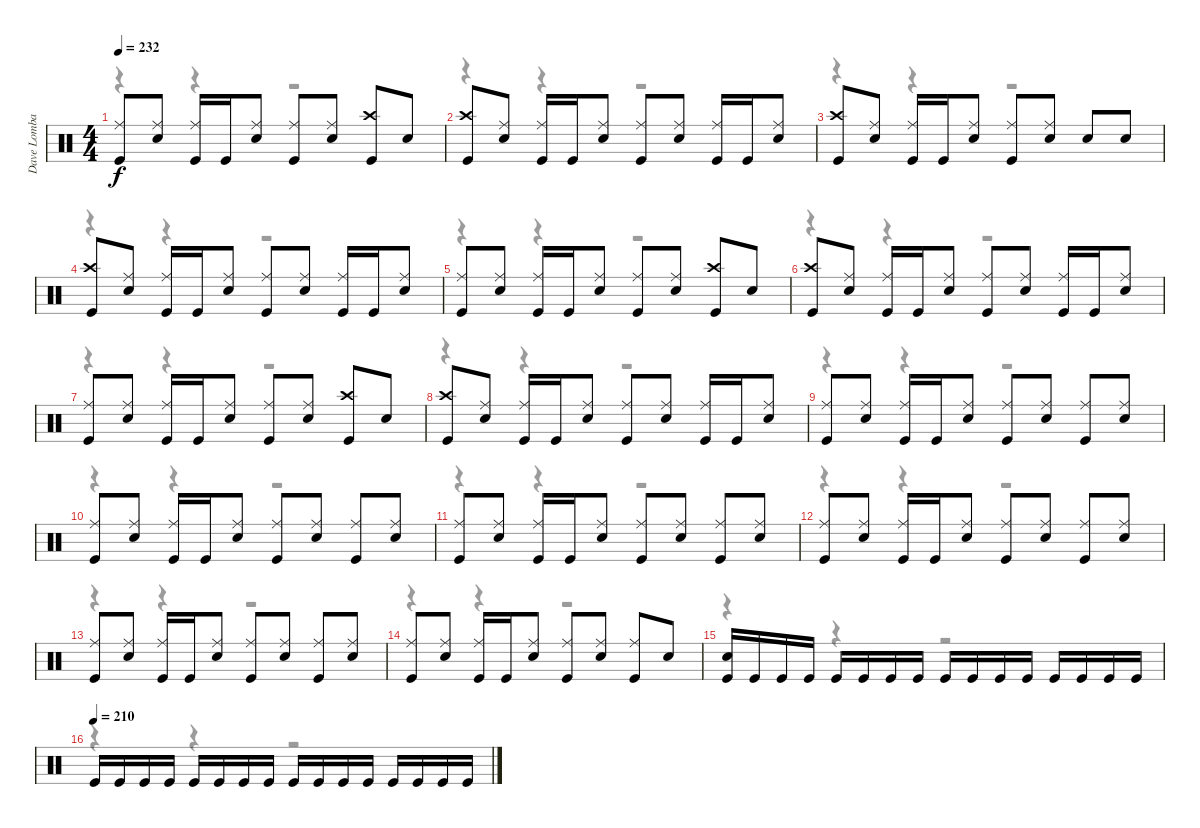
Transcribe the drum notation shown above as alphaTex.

\track ("Dave Lombardo" "Dave Lomba") {instrument percussion}
\staff {score}
\articulation defaults
\voice
\ts (4 4)
\tempo 232
\clef neutral
\ks c
("Ride (middle)" "Kick (hit)").8{dy f} ("Ride (middle)" "Snare (hit) 2").8 ("Ride (middle)" "Kick (hit)").16 "Kick (hit)".16 ("Ride (middle)" "Snare (hit) 2").8 ("Ride (middle)" "Kick (hit)").8 ("Ride (middle)" "Snare (hit) 2").8 ("Crash high (hit)" "Kick (hit)").8 "Snare (hit) 2".8 |
("Crash high (hit)" "Kick (hit)").8 ("Ride (middle)" "Snare (hit) 2").8 ("Ride (middle)" "Kick (hit)").16 "Kick (hit)".16 ("Ride (middle)" "Snare (hit) 2").8 ("Ride (middle)" "Kick (hit)").8 ("Ride (middle)" "Snare (hit) 2").8 ("Ride (middle)" "Kick (hit)").16 "Kick (hit)".16 ("Ride (middle)" "Snare (hit) 2").8 |
("Crash high (hit)" "Kick (hit)").8 ("Ride (middle)" "Snare (hit) 2").8 ("Ride (middle)" "Kick (hit)").16 "Kick (hit)".16 ("Ride (middle)" "Snare (hit) 2").8 ("Ride (middle)" "Kick (hit)").8 ("Ride (middle)" "Snare (hit) 2").8 "Snare (hit) 2".8 "Snare (hit) 2".8 |
("Crash high (hit)" "Kick (hit)").8 ("Ride (middle)" "Snare (hit) 2").8 ("Ride (middle)" "Kick (hit)").16 "Kick (hit)".16 ("Ride (middle)" "Snare (hit) 2").8 ("Ride (middle)" "Kick (hit)").8 ("Ride (middle)" "Snare (hit) 2").8 ("Ride (middle)" "Kick (hit)").16 "Kick (hit)".16 ("Ride (middle)" "Snare (hit) 2").8 |
("Ride (middle)" "Kick (hit)").8 ("Ride (middle)" "Snare (hit) 2").8 ("Ride (middle)" "Kick (hit)").16 "Kick (hit)".16 ("Ride (middle)" "Snare (hit) 2").8 ("Ride (middle)" "Kick (hit)").8 ("Ride (middle)" "Snare (hit) 2").8 ("Crash high (hit)" "Kick (hit)").8 "Snare (hit) 2".8 |
("Crash high (hit)" "Kick (hit)").8 ("Ride (middle)" "Snare (hit) 2").8 ("Ride (middle)" "Kick (hit)").16 "Kick (hit)".16 ("Ride (middle)" "Snare (hit) 2").8 ("Ride (middle)" "Kick (hit)").8 ("Ride (middle)" "Snare (hit) 2").8 ("Ride (middle)" "Kick (hit)").16 "Kick (hit)".16 ("Ride (middle)" "Snare (hit) 2").8 |
("Ride (middle)" "Kick (hit)").8 ("Ride (middle)" "Snare (hit) 2").8 ("Ride (middle)" "Kick (hit)").16 "Kick (hit)".16 ("Ride (middle)" "Snare (hit) 2").8 ("Ride (middle)" "Kick (hit)").8 ("Ride (middle)" "Snare (hit) 2").8 ("Crash high (hit)" "Kick (hit)").8 "Snare (hit) 2".8 |
("Crash high (hit)" "Kick (hit)").8 ("Ride (middle)" "Snare (hit) 2").8 ("Ride (middle)" "Kick (hit)").16 "Kick (hit)".16 ("Ride (middle)" "Snare (hit) 2").8 ("Ride (middle)" "Kick (hit)").8 ("Ride (middle)" "Snare (hit) 2").8 ("Ride (middle)" "Kick (hit)").16 "Kick (hit)".16 ("Ride (middle)" "Snare (hit) 2").8 |
("Ride (middle)" "Kick (hit)").8 ("Ride (middle)" "Snare (hit) 2").8 ("Ride (middle)" "Kick (hit)").16 "Kick (hit)".16 ("Ride (middle)" "Snare (hit) 2").8 ("Ride (middle)" "Kick (hit)").8 ("Ride (middle)" "Snare (hit) 2").8 ("Ride (middle)" "Kick (hit)").8 ("Ride (middle)" "Snare (hit) 2").8 |
("Ride (middle)" "Kick (hit)").8 ("Ride (middle)" "Snare (hit) 2").8 ("Ride (middle)" "Kick (hit)").16 "Kick (hit)".16 ("Ride (middle)" "Snare (hit) 2").8 ("Ride (middle)" "Kick (hit)").8 ("Ride (middle)" "Snare (hit) 2").8 ("Ride (middle)" "Kick (hit)").8 ("Ride (middle)" "Snare (hit) 2").8 |
("Ride (middle)" "Kick (hit)").8 ("Ride (middle)" "Snare (hit) 2").8 ("Ride (middle)" "Kick (hit)").16 "Kick (hit)".16 ("Ride (middle)" "Snare (hit) 2").8 ("Ride (middle)" "Kick (hit)").8 ("Ride (middle)" "Snare (hit) 2").8 ("Ride (middle)" "Kick (hit)").8 ("Ride (middle)" "Snare (hit) 2").8 |
("Ride (middle)" "Kick (hit)").8 ("Ride (middle)" "Snare (hit) 2").8 ("Ride (middle)" "Kick (hit)").16 "Kick (hit)".16 ("Ride (middle)" "Snare (hit) 2").8 ("Ride (middle)" "Kick (hit)").8 ("Ride (middle)" "Snare (hit) 2").8 ("Ride (middle)" "Kick (hit)").8 ("Ride (middle)" "Snare (hit) 2").8 |
("Ride (middle)" "Kick (hit)").8 ("Ride (middle)" "Snare (hit) 2").8 ("Ride (middle)" "Kick (hit)").16 "Kick (hit)".16 ("Ride (middle)" "Snare (hit) 2").8 ("Ride (middle)" "Kick (hit)").8 ("Ride (middle)" "Snare (hit) 2").8 ("Ride (middle)" "Kick (hit)").8 ("Ride (middle)" "Snare (hit) 2").8 |
("Ride (middle)" "Kick (hit)").8 ("Ride (middle)" "Snare (hit) 2").8 ("Ride (middle)" "Kick (hit)").16 "Kick (hit)".16 ("Ride (middle)" "Snare (hit) 2").8 ("Ride (middle)" "Kick (hit)").8 ("Ride (middle)" "Snare (hit) 2").8 ("Ride (middle)" "Kick (hit)").8 "Snare (hit) 2".8 |
("Snare (hit) 2" "Kick (hit)").16 "Kick (hit)".16 "Kick (hit)".16 "Kick (hit)".16 "Kick (hit)".16 "Kick (hit)".16 "Kick (hit)".16 "Kick (hit)".16 "Kick (hit)".16 "Kick (hit)".16 "Kick (hit)".16 "Kick (hit)".16 "Kick (hit)".16 "Kick (hit)".16 "Kick (hit)".16 "Kick (hit)".16 |
\tempo (210)
"Kick (hit)".16 "Kick (hit)".16 "Kick (hit)".16 "Kick (hit)".16 "Kick (hit)".16 "Kick (hit)".16 "Kick (hit)".16 "Kick (hit)".16 "Kick (hit)".16 "Kick (hit)".16 "Kick (hit)".16 "Kick (hit)".16 "Kick (hit)".16 "Kick (hit)".16 "Kick (hit)".16 "Kick (hit)".16
\voice
\clef neutral
\ottava regular
\simile none
\ks c
r.4{dy f} r.4 r.2 |
r.4 r.4 r.2 |
r.4 r.4 r.2 |
r.4 r.4 r.2 |
r.4 r.4 r.2 |
r.4 r.4 r.2 |
r.4 r.4 r.2 |
r.4 r.4 r.2 |
r.4 r.4 r.2 |
r.4 r.4 r.2 |
r.4 r.4 r.2 |
r.4 r.4 r.2 |
r.4 r.4 r.2 |
r.4 r.4 r.2 |
r.4 r.4 r.2 |
r.4 r.4 r.2
